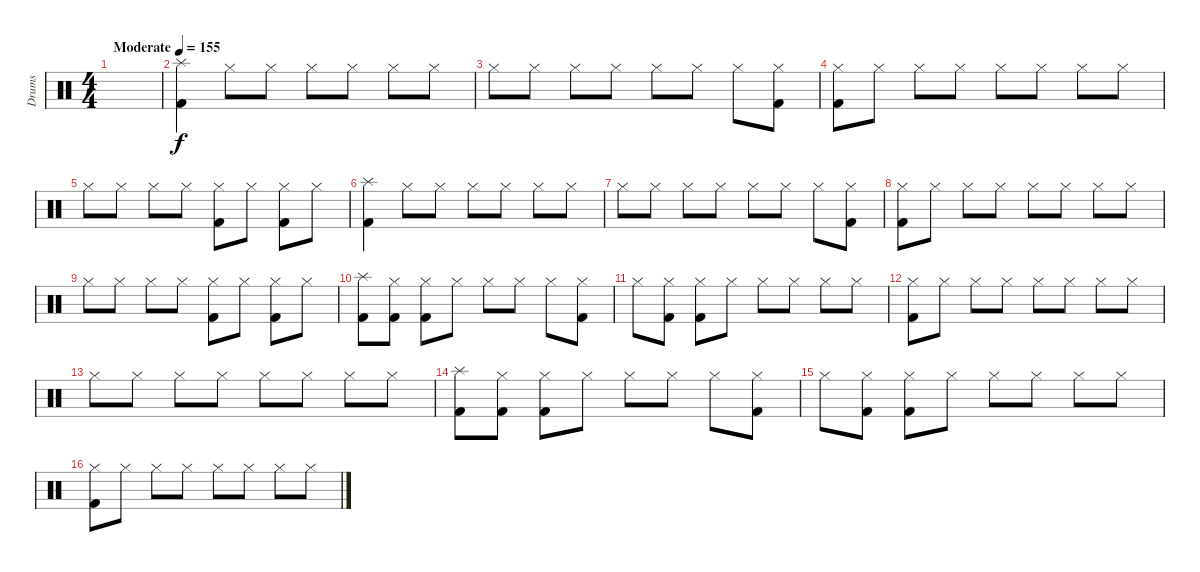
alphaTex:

\track ("Drums" "Drums") {instrument percussion}
\staff {score}
\articulation defaults
\ts (4 4)
\tempo (155 "Moderate")
\clef neutral
\ks c
|
("Splash (hit)" "Kick (hit) 2").4 "Hi-Hat (closed)".8 "Hi-Hat (closed)".8 "Hi-Hat (closed)".8 "Hi-Hat (closed)".8 "Hi-Hat (closed)".8 "Hi-Hat (closed)".8 |
"Hi-Hat (closed)".8 "Hi-Hat (closed)".8 "Hi-Hat (closed)".8 "Hi-Hat (closed)".8 "Hi-Hat (closed)".8 "Hi-Hat (closed)".8 "Hi-Hat (closed)".8 ("Hi-Hat (closed)" "Kick (hit) 2").8 |
("Hi-Hat (closed)" "Kick (hit) 2").8 "Hi-Hat (closed)".8 "Hi-Hat (closed)".8 "Hi-Hat (closed)".8 "Hi-Hat (closed)".8 "Hi-Hat (closed)".8 "Hi-Hat (closed)".8 "Hi-Hat (closed)".8 |
"Hi-Hat (closed)".8 "Hi-Hat (closed)".8 "Hi-Hat (closed)".8 "Hi-Hat (closed)".8 ("Hi-Hat (closed)" "Kick (hit) 2").8 "Hi-Hat (closed)".8 ("Hi-Hat (closed)" "Kick (hit) 2").8 "Hi-Hat (closed)".8 |
("Splash (hit)" "Kick (hit) 2").4 "Hi-Hat (closed)".8 "Hi-Hat (closed)".8 "Hi-Hat (closed)".8 "Hi-Hat (closed)".8 "Hi-Hat (closed)".8 "Hi-Hat (closed)".8 |
"Hi-Hat (closed)".8 "Hi-Hat (closed)".8 "Hi-Hat (closed)".8 "Hi-Hat (closed)".8 "Hi-Hat (closed)".8 "Hi-Hat (closed)".8 "Hi-Hat (closed)".8 ("Hi-Hat (closed)" "Kick (hit) 2").8 |
("Hi-Hat (closed)" "Kick (hit) 2").8 "Hi-Hat (closed)".8 "Hi-Hat (closed)".8 "Hi-Hat (closed)".8 "Hi-Hat (closed)".8 "Hi-Hat (closed)".8 "Hi-Hat (closed)".8 "Hi-Hat (closed)".8 |
"Hi-Hat (closed)".8 "Hi-Hat (closed)".8 "Hi-Hat (closed)".8 "Hi-Hat (closed)".8 ("Hi-Hat (closed)" "Kick (hit) 2").8 "Hi-Hat (closed)".8 ("Hi-Hat (closed)" "Kick (hit) 2").8 "Hi-Hat (closed)".8 |
("Splash (hit)" "Kick (hit) 2").8 ("Hi-Hat (closed)" "Kick (hit) 2").8 ("Hi-Hat (closed)" "Kick (hit) 2").8 "Hi-Hat (closed)".8 "Hi-Hat (closed)".8 "Hi-Hat (closed)".8 "Hi-Hat (closed)".8 ("Hi-Hat (closed)" "Kick (hit) 2").8 |
"Hi-Hat (closed)".8 ("Hi-Hat (closed)" "Kick (hit) 2").8 ("Hi-Hat (closed)" "Kick (hit) 2").8 "Hi-Hat (closed)".8 "Hi-Hat (closed)".8 "Hi-Hat (closed)".8 "Hi-Hat (closed)".8 "Hi-Hat (closed)".8 |
("Hi-Hat (closed)" "Kick (hit) 2").8 "Hi-Hat (closed)".8 "Hi-Hat (closed)".8 "Hi-Hat (closed)".8 "Hi-Hat (closed)".8 "Hi-Hat (closed)".8 "Hi-Hat (closed)".8 "Hi-Hat (closed)".8 |
"Hi-Hat (closed)".8 "Hi-Hat (closed)".8 "Hi-Hat (closed)".8 "Hi-Hat (closed)".8 "Hi-Hat (closed)".8 "Hi-Hat (closed)".8 "Hi-Hat (closed)".8 "Hi-Hat (closed)".8 |
("Splash (hit)" "Kick (hit) 2").8 ("Hi-Hat (closed)" "Kick (hit) 2").8 ("Hi-Hat (closed)" "Kick (hit) 2").8 "Hi-Hat (closed)".8 "Hi-Hat (closed)".8 "Hi-Hat (closed)".8 "Hi-Hat (closed)".8 ("Hi-Hat (closed)" "Kick (hit) 2").8 |
"Hi-Hat (closed)".8 ("Hi-Hat (closed)" "Kick (hit) 2").8 ("Hi-Hat (closed)" "Kick (hit) 2").8 "Hi-Hat (closed)".8 "Hi-Hat (closed)".8 "Hi-Hat (closed)".8 "Hi-Hat (closed)".8 "Hi-Hat (closed)".8 |
("Hi-Hat (closed)" "Kick (hit) 2").8 "Hi-Hat (closed)".8 "Hi-Hat (closed)".8 "Hi-Hat (closed)".8 "Hi-Hat (closed)".8 "Hi-Hat (closed)".8 "Hi-Hat (closed)".8 "Hi-Hat (closed)".8
